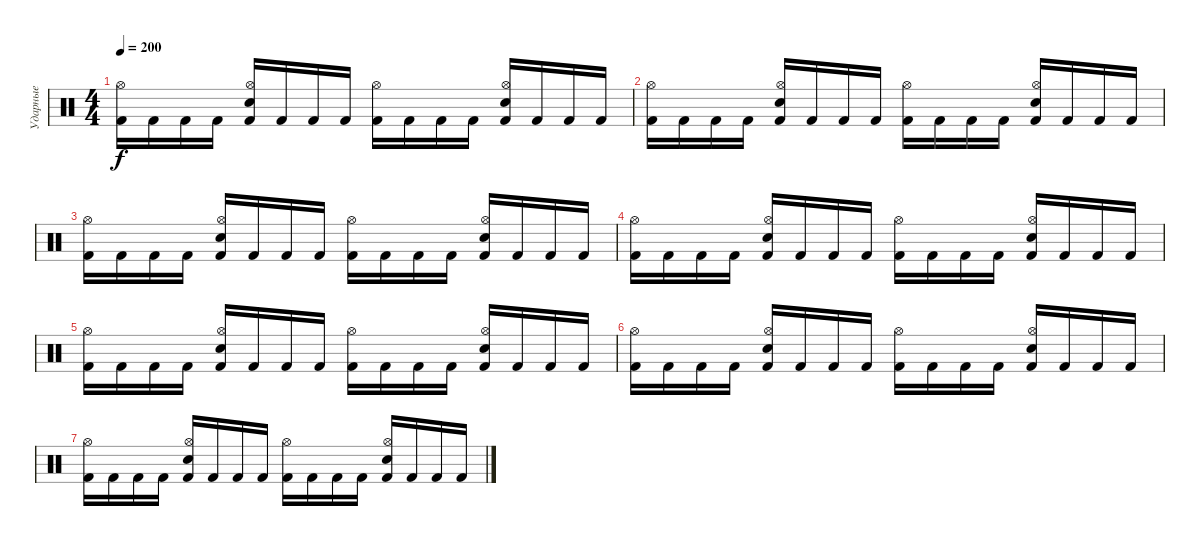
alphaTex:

\track ("Ударные" "Ударные") {instrument percussion}
\staff {score}
\articulation defaults
\ts (4 4)
\tempo 200
\clef neutral
\ks c
("Kick (hit) 2" "Hi-Hat (open)").16{dy f} "Kick (hit) 2".16 "Kick (hit) 2".16 "Kick (hit) 2".16 ("Kick (hit) 2" "Hi-Hat (open)" "Electric Snare (hit)").16 "Kick (hit) 2".16 "Kick (hit) 2".16 "Kick (hit) 2".16 ("Kick (hit) 2" "Hi-Hat (open)").16 "Kick (hit) 2".16 "Kick (hit) 2".16 "Kick (hit) 2".16 ("Kick (hit) 2" "Hi-Hat (open)" "Electric Snare (hit)").16 "Kick (hit) 2".16 "Kick (hit) 2".16 "Kick (hit) 2".16 |
("Kick (hit) 2" "Hi-Hat (open)").16 "Kick (hit) 2".16 "Kick (hit) 2".16 "Kick (hit) 2".16 ("Kick (hit) 2" "Hi-Hat (open)" "Electric Snare (hit)").16 "Kick (hit) 2".16 "Kick (hit) 2".16 "Kick (hit) 2".16 ("Kick (hit) 2" "Hi-Hat (open)").16 "Kick (hit) 2".16 "Kick (hit) 2".16 "Kick (hit) 2".16 ("Kick (hit) 2" "Hi-Hat (open)" "Electric Snare (hit)").16 "Kick (hit) 2".16 "Kick (hit) 2".16 "Kick (hit) 2".16 |
("Kick (hit) 2" "Hi-Hat (open)").16 "Kick (hit) 2".16 "Kick (hit) 2".16 "Kick (hit) 2".16 ("Kick (hit) 2" "Hi-Hat (open)" "Electric Snare (hit)").16 "Kick (hit) 2".16 "Kick (hit) 2".16 "Kick (hit) 2".16 ("Kick (hit) 2" "Hi-Hat (open)").16 "Kick (hit) 2".16 "Kick (hit) 2".16 "Kick (hit) 2".16 ("Kick (hit) 2" "Hi-Hat (open)" "Electric Snare (hit)").16 "Kick (hit) 2".16 "Kick (hit) 2".16 "Kick (hit) 2".16 |
("Kick (hit) 2" "Hi-Hat (open)").16 "Kick (hit) 2".16 "Kick (hit) 2".16 "Kick (hit) 2".16 ("Kick (hit) 2" "Hi-Hat (open)" "Electric Snare (hit)").16 "Kick (hit) 2".16 "Kick (hit) 2".16 "Kick (hit) 2".16 ("Kick (hit) 2" "Hi-Hat (open)").16 "Kick (hit) 2".16 "Kick (hit) 2".16 "Kick (hit) 2".16 ("Kick (hit) 2" "Hi-Hat (open)" "Electric Snare (hit)").16 "Kick (hit) 2".16 "Kick (hit) 2".16 "Kick (hit) 2".16 |
("Kick (hit) 2" "Hi-Hat (open)").16 "Kick (hit) 2".16 "Kick (hit) 2".16 "Kick (hit) 2".16 ("Kick (hit) 2" "Hi-Hat (open)" "Electric Snare (hit)").16 "Kick (hit) 2".16 "Kick (hit) 2".16 "Kick (hit) 2".16 ("Kick (hit) 2" "Hi-Hat (open)").16 "Kick (hit) 2".16 "Kick (hit) 2".16 "Kick (hit) 2".16 ("Kick (hit) 2" "Hi-Hat (open)" "Electric Snare (hit)").16 "Kick (hit) 2".16 "Kick (hit) 2".16 "Kick (hit) 2".16 |
("Kick (hit) 2" "Hi-Hat (open)").16 "Kick (hit) 2".16 "Kick (hit) 2".16 "Kick (hit) 2".16 ("Kick (hit) 2" "Hi-Hat (open)" "Electric Snare (hit)").16 "Kick (hit) 2".16 "Kick (hit) 2".16 "Kick (hit) 2".16 ("Kick (hit) 2" "Hi-Hat (open)").16 "Kick (hit) 2".16 "Kick (hit) 2".16 "Kick (hit) 2".16 ("Kick (hit) 2" "Hi-Hat (open)" "Electric Snare (hit)").16 "Kick (hit) 2".16 "Kick (hit) 2".16 "Kick (hit) 2".16 |
("Kick (hit) 2" "Hi-Hat (open)").16 "Kick (hit) 2".16 "Kick (hit) 2".16 "Kick (hit) 2".16 ("Kick (hit) 2" "Hi-Hat (open)" "Electric Snare (hit)").16 "Kick (hit) 2".16 "Kick (hit) 2".16 "Kick (hit) 2".16 ("Kick (hit) 2" "Hi-Hat (open)").16 "Kick (hit) 2".16 "Kick (hit) 2".16 "Kick (hit) 2".16 ("Kick (hit) 2" "Hi-Hat (open)" "Electric Snare (hit)").16 "Kick (hit) 2".16 "Kick (hit) 2".16 "Kick (hit) 2".16
